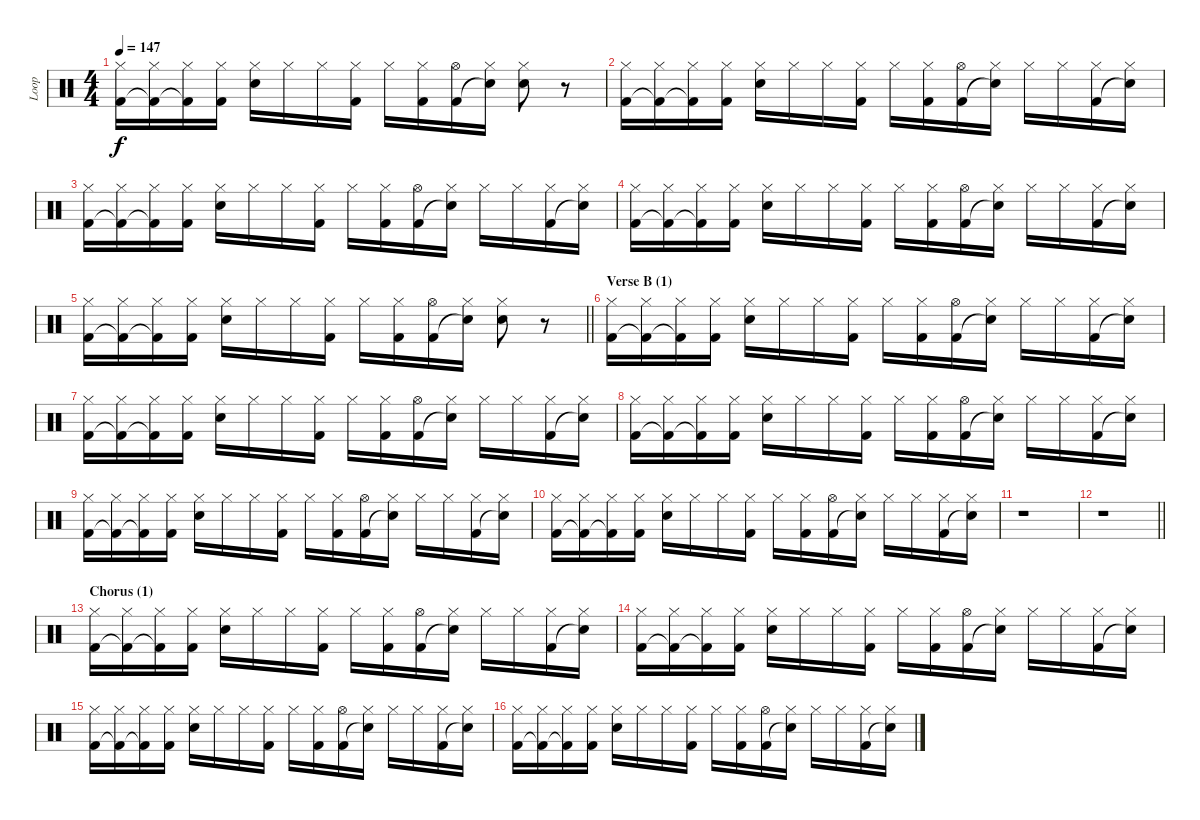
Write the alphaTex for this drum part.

\track ("Loop" "Loop") {instrument percussion}
\staff {score}
\articulation defaults
\ts (4 4)
\tempo 147
\clef neutral
\ks aminor
("Hi-Hat (closed)" "Kick (hit) 2").16{dy f} ("Hi-Hat (closed)" "Kick (hit) 2"{t}).16 ("Hi-Hat (closed)" "Kick (hit) 2"{t}).16 ("Hi-Hat (closed)" "Kick (hit) 2").16 ("Hi-Hat (closed)" "Electric Snare (hit)").16 "Hi-Hat (closed)".16 "Hi-Hat (closed)".16 ("Hi-Hat (closed)" "Kick (hit) 2").16 "Hi-Hat (closed)".16 ("Hi-Hat (closed)" "Kick (hit) 2").16 ("Hi-Hat (open)" "Kick (hit) 2").16 ("Hi-Hat (closed)" "Snare (hit)"{t}).16 ("Hi-Hat (closed)" "Electric Snare (hit)").8 r.8 |
("Hi-Hat (closed)" "Kick (hit) 2").16 ("Hi-Hat (closed)" "Kick (hit) 2"{t}).16 ("Hi-Hat (closed)" "Kick (hit) 2"{t}).16 ("Hi-Hat (closed)" "Kick (hit) 2").16 ("Hi-Hat (closed)" "Electric Snare (hit)").16 "Hi-Hat (closed)".16 "Hi-Hat (closed)".16 ("Hi-Hat (closed)" "Kick (hit) 2").16 "Hi-Hat (closed)".16 ("Hi-Hat (closed)" "Kick (hit) 2").16 ("Hi-Hat (open)" "Kick (hit) 2").16 ("Hi-Hat (closed)" "Snare (hit)"{t}).16 "Hi-Hat (closed)".16 "Hi-Hat (closed)".16 ("Hi-Hat (closed)" "Kick (hit) 2").16 ("Hi-Hat (closed)" "Snare (hit)"{t}).16 |
("Hi-Hat (closed)" "Kick (hit) 2").16 ("Hi-Hat (closed)" "Kick (hit) 2"{t}).16 ("Hi-Hat (closed)" "Kick (hit) 2"{t}).16 ("Hi-Hat (closed)" "Kick (hit) 2").16 ("Hi-Hat (closed)" "Electric Snare (hit)").16 "Hi-Hat (closed)".16 "Hi-Hat (closed)".16 ("Hi-Hat (closed)" "Kick (hit) 2").16 "Hi-Hat (closed)".16 ("Hi-Hat (closed)" "Kick (hit) 2").16 ("Hi-Hat (open)" "Kick (hit) 2").16 ("Hi-Hat (closed)" "Snare (hit)"{t}).16 "Hi-Hat (closed)".16 "Hi-Hat (closed)".16 ("Hi-Hat (closed)" "Kick (hit) 2").16 ("Hi-Hat (closed)" "Snare (hit)"{t}).16 |
("Hi-Hat (closed)" "Kick (hit) 2").16 ("Hi-Hat (closed)" "Kick (hit) 2"{t}).16 ("Hi-Hat (closed)" "Kick (hit) 2"{t}).16 ("Hi-Hat (closed)" "Kick (hit) 2").16 ("Hi-Hat (closed)" "Electric Snare (hit)").16 "Hi-Hat (closed)".16 "Hi-Hat (closed)".16 ("Hi-Hat (closed)" "Kick (hit) 2").16 "Hi-Hat (closed)".16 ("Hi-Hat (closed)" "Kick (hit) 2").16 ("Hi-Hat (open)" "Kick (hit) 2").16 ("Hi-Hat (closed)" "Snare (hit)"{t}).16 "Hi-Hat (closed)".16 "Hi-Hat (closed)".16 ("Hi-Hat (closed)" "Kick (hit) 2").16 ("Hi-Hat (closed)" "Snare (hit)"{t}).16 |
\barLineRight lightlight
("Hi-Hat (closed)" "Kick (hit) 2").16 ("Hi-Hat (closed)" "Kick (hit) 2"{t}).16 ("Hi-Hat (closed)" "Kick (hit) 2"{t}).16 ("Hi-Hat (closed)" "Kick (hit) 2").16 ("Hi-Hat (closed)" "Electric Snare (hit)").16 "Hi-Hat (closed)".16 "Hi-Hat (closed)".16 ("Hi-Hat (closed)" "Kick (hit) 2").16 "Hi-Hat (closed)".16 ("Hi-Hat (closed)" "Kick (hit) 2").16 ("Hi-Hat (open)" "Kick (hit) 2").16 ("Hi-Hat (closed)" "Snare (hit)"{t}).16 ("Hi-Hat (closed)" "Electric Snare (hit)").8 r.8 |
\section ("" "Verse B (1)")
("Hi-Hat (closed)" "Kick (hit) 2").16 ("Hi-Hat (closed)" "Kick (hit) 2"{t}).16 ("Hi-Hat (closed)" "Kick (hit) 2"{t}).16 ("Hi-Hat (closed)" "Kick (hit) 2").16 ("Hi-Hat (closed)" "Electric Snare (hit)").16 "Hi-Hat (closed)".16 "Hi-Hat (closed)".16 ("Hi-Hat (closed)" "Kick (hit) 2").16 "Hi-Hat (closed)".16 ("Hi-Hat (closed)" "Kick (hit) 2").16 ("Hi-Hat (open)" "Kick (hit) 2").16 ("Hi-Hat (closed)" "Snare (hit)"{t}).16 "Hi-Hat (closed)".16 "Hi-Hat (closed)".16 ("Hi-Hat (closed)" "Kick (hit) 2").16 ("Hi-Hat (closed)" "Snare (hit)"{t}).16 |
("Hi-Hat (closed)" "Kick (hit) 2").16 ("Hi-Hat (closed)" "Kick (hit) 2"{t}).16 ("Hi-Hat (closed)" "Kick (hit) 2"{t}).16 ("Hi-Hat (closed)" "Kick (hit) 2").16 ("Hi-Hat (closed)" "Electric Snare (hit)").16 "Hi-Hat (closed)".16 "Hi-Hat (closed)".16 ("Hi-Hat (closed)" "Kick (hit) 2").16 "Hi-Hat (closed)".16 ("Hi-Hat (closed)" "Kick (hit) 2").16 ("Hi-Hat (open)" "Kick (hit) 2").16 ("Hi-Hat (closed)" "Snare (hit)"{t}).16 "Hi-Hat (closed)".16 "Hi-Hat (closed)".16 ("Hi-Hat (closed)" "Kick (hit) 2").16 ("Hi-Hat (closed)" "Snare (hit)"{t}).16 |
("Hi-Hat (closed)" "Kick (hit) 2").16 ("Hi-Hat (closed)" "Kick (hit) 2"{t}).16 ("Hi-Hat (closed)" "Kick (hit) 2"{t}).16 ("Hi-Hat (closed)" "Kick (hit) 2").16 ("Hi-Hat (closed)" "Electric Snare (hit)").16 "Hi-Hat (closed)".16 "Hi-Hat (closed)".16 ("Hi-Hat (closed)" "Kick (hit) 2").16 "Hi-Hat (closed)".16 ("Hi-Hat (closed)" "Kick (hit) 2").16 ("Hi-Hat (open)" "Kick (hit) 2").16 ("Hi-Hat (closed)" "Snare (hit)"{t}).16 "Hi-Hat (closed)".16 "Hi-Hat (closed)".16 ("Hi-Hat (closed)" "Kick (hit) 2").16 ("Hi-Hat (closed)" "Snare (hit)"{t}).16 |
("Hi-Hat (closed)" "Kick (hit) 2").16 ("Hi-Hat (closed)" "Kick (hit) 2"{t}).16 ("Hi-Hat (closed)" "Kick (hit) 2"{t}).16 ("Hi-Hat (closed)" "Kick (hit) 2").16 ("Hi-Hat (closed)" "Electric Snare (hit)").16 "Hi-Hat (closed)".16 "Hi-Hat (closed)".16 ("Hi-Hat (closed)" "Kick (hit) 2").16 "Hi-Hat (closed)".16 ("Hi-Hat (closed)" "Kick (hit) 2").16 ("Hi-Hat (open)" "Kick (hit) 2").16 ("Hi-Hat (closed)" "Snare (hit)"{t}).16 "Hi-Hat (closed)".16 "Hi-Hat (closed)".16 ("Hi-Hat (closed)" "Kick (hit) 2").16 ("Hi-Hat (closed)" "Snare (hit)"{t}).16 |
("Hi-Hat (closed)" "Kick (hit) 2").16 ("Hi-Hat (closed)" "Kick (hit) 2"{t}).16 ("Hi-Hat (closed)" "Kick (hit) 2"{t}).16 ("Hi-Hat (closed)" "Kick (hit) 2").16 ("Hi-Hat (closed)" "Electric Snare (hit)").16 "Hi-Hat (closed)".16 "Hi-Hat (closed)".16 ("Hi-Hat (closed)" "Kick (hit) 2").16 "Hi-Hat (closed)".16 ("Hi-Hat (closed)" "Kick (hit) 2").16 ("Hi-Hat (open)" "Kick (hit) 2").16 ("Hi-Hat (closed)" "Snare (hit)"{t}).16 "Hi-Hat (closed)".16 "Hi-Hat (closed)".16 ("Hi-Hat (closed)" "Kick (hit) 2").16 ("Hi-Hat (closed)" "Snare (hit)"{t}).16 |
r.1 |
\barLineRight lightlight
r.1 |
\section ("" "Chorus (1)")
("Hi-Hat (closed)" "Kick (hit) 2").16 ("Hi-Hat (closed)" "Kick (hit) 2"{t}).16 ("Hi-Hat (closed)" "Kick (hit) 2"{t}).16 ("Hi-Hat (closed)" "Kick (hit) 2").16 ("Hi-Hat (closed)" "Electric Snare (hit)").16 "Hi-Hat (closed)".16 "Hi-Hat (closed)".16 ("Hi-Hat (closed)" "Kick (hit) 2").16 "Hi-Hat (closed)".16 ("Hi-Hat (closed)" "Kick (hit) 2").16 ("Hi-Hat (open)" "Kick (hit) 2").16 ("Hi-Hat (closed)" "Snare (hit)"{t}).16 "Hi-Hat (closed)".16 "Hi-Hat (closed)".16 ("Hi-Hat (closed)" "Kick (hit) 2").16 ("Hi-Hat (closed)" "Snare (hit)"{t}).16 |
("Hi-Hat (closed)" "Kick (hit) 2").16 ("Hi-Hat (closed)" "Kick (hit) 2"{t}).16 ("Hi-Hat (closed)" "Kick (hit) 2"{t}).16 ("Hi-Hat (closed)" "Kick (hit) 2").16 ("Hi-Hat (closed)" "Electric Snare (hit)").16 "Hi-Hat (closed)".16 "Hi-Hat (closed)".16 ("Hi-Hat (closed)" "Kick (hit) 2").16 "Hi-Hat (closed)".16 ("Hi-Hat (closed)" "Kick (hit) 2").16 ("Hi-Hat (open)" "Kick (hit) 2").16 ("Hi-Hat (closed)" "Snare (hit)"{t}).16 "Hi-Hat (closed)".16 "Hi-Hat (closed)".16 ("Hi-Hat (closed)" "Kick (hit) 2").16 ("Hi-Hat (closed)" "Snare (hit)"{t}).16 |
("Hi-Hat (closed)" "Kick (hit) 2").16 ("Hi-Hat (closed)" "Kick (hit) 2"{t}).16 ("Hi-Hat (closed)" "Kick (hit) 2"{t}).16 ("Hi-Hat (closed)" "Kick (hit) 2").16 ("Hi-Hat (closed)" "Electric Snare (hit)").16 "Hi-Hat (closed)".16 "Hi-Hat (closed)".16 ("Hi-Hat (closed)" "Kick (hit) 2").16 "Hi-Hat (closed)".16 ("Hi-Hat (closed)" "Kick (hit) 2").16 ("Hi-Hat (open)" "Kick (hit) 2").16 ("Hi-Hat (closed)" "Snare (hit)"{t}).16 "Hi-Hat (closed)".16 "Hi-Hat (closed)".16 ("Hi-Hat (closed)" "Kick (hit) 2").16 ("Hi-Hat (closed)" "Snare (hit)"{t}).16 |
("Hi-Hat (closed)" "Kick (hit) 2").16 ("Hi-Hat (closed)" "Kick (hit) 2"{t}).16 ("Hi-Hat (closed)" "Kick (hit) 2"{t}).16 ("Hi-Hat (closed)" "Kick (hit) 2").16 ("Hi-Hat (closed)" "Electric Snare (hit)").16 "Hi-Hat (closed)".16 "Hi-Hat (closed)".16 ("Hi-Hat (closed)" "Kick (hit) 2").16 "Hi-Hat (closed)".16 ("Hi-Hat (closed)" "Kick (hit) 2").16 ("Hi-Hat (open)" "Kick (hit) 2").16 ("Hi-Hat (closed)" "Snare (hit)"{t}).16 "Hi-Hat (closed)".16 "Hi-Hat (closed)".16 ("Hi-Hat (closed)" "Kick (hit) 2").16 ("Hi-Hat (closed)" "Snare (hit)"{t}).16
